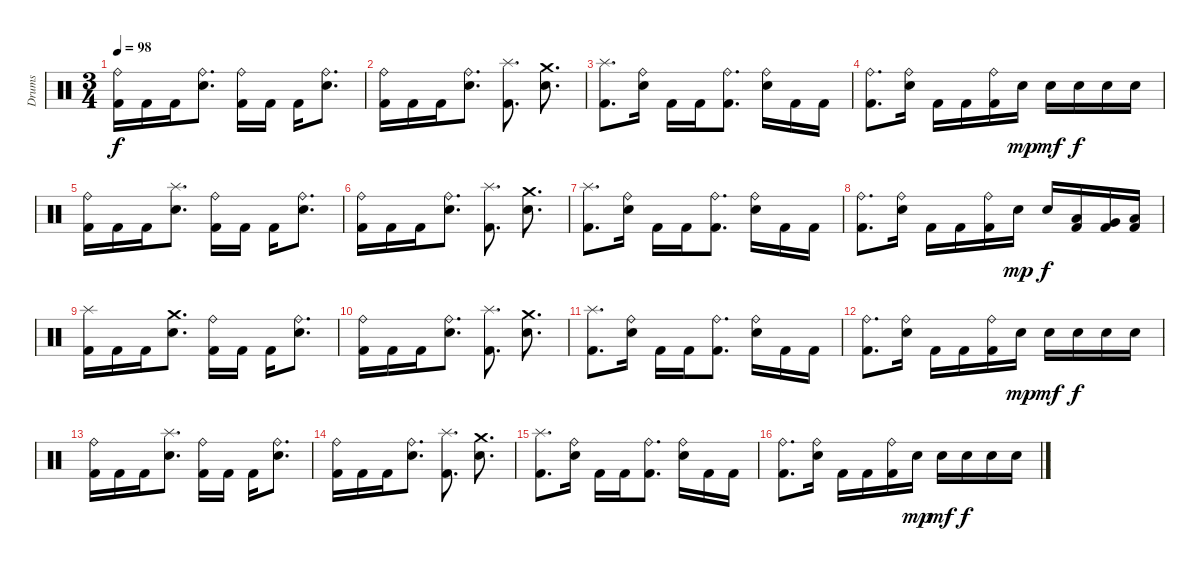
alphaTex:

\track ("Drums" "Drums") {instrument percussion}
\staff {score}
\articulation defaults
\ts (3 4)
\tempo 98
\clef neutral
\ks c
("Ride (bell)" "Kick (hit) 2").16{dy f} "Kick (hit) 2".16 "Kick (hit) 2".16 ("Ride (bell)" "Electric Snare (hit)").8{d} ("Ride (bell)" "Kick (hit) 2").16 "Kick (hit) 2".16 "Kick (hit) 2".16 ("Ride (bell)" "Electric Snare (hit)").8{d} |
("Ride (bell)" "Kick (hit) 2").16 "Kick (hit) 2".16 "Kick (hit) 2".16 ("Ride (bell)" "Electric Snare (hit)").8{d} ("Splash (hit)" "Kick (hit) 2").8{d} ("Crash medium (hit)" "Electric Snare (hit)").8{d} |
("Splash (hit)" "Kick (hit) 2").8{d} ("Ride (bell)" "Electric Snare (hit)").16 "Kick (hit) 2".16 "Kick (hit) 2".16 ("Ride (bell)" "Kick (hit) 2").8{d} ("Ride (bell)" "Electric Snare (hit)").16 "Kick (hit) 2".16 "Kick (hit) 2".16 |
("Ride (bell)" "Kick (hit) 2").8{d} ("Ride (bell)" "Electric Snare (hit)").16 "Kick (hit) 2".16 "Kick (hit) 2".16 ("Ride (bell)" "Kick (hit) 2").16 "Electric Snare (hit)".16{dy mp} "Electric Snare (hit)".16{dy mf} "Electric Snare (hit)".16{dy f} "Electric Snare (hit)".16 "Electric Snare (hit)".16 |
("Ride (bell)" "Kick (hit) 2").16 "Kick (hit) 2".16 "Kick (hit) 2".16 ("Splash (hit)" "Electric Snare (hit)").8{d} ("Ride (bell)" "Kick (hit) 2").16 "Kick (hit) 2".16 "Kick (hit) 2".16 ("Ride (bell)" "Electric Snare (hit)").8{d} |
("Ride (bell)" "Kick (hit) 2").16 "Kick (hit) 2".16 "Kick (hit) 2".16 ("Ride (bell)" "Electric Snare (hit)").8{d} ("Splash (hit)" "Kick (hit) 2").8{d} ("Crash medium (hit)" "Electric Snare (hit)").8{d} |
("Splash (hit)" "Kick (hit) 2").8{d} ("Ride (bell)" "Electric Snare (hit)").16 "Kick (hit) 2".16 "Kick (hit) 2".16 ("Ride (bell)" "Kick (hit) 2").8{d} ("Ride (bell)" "Electric Snare (hit)").16 "Kick (hit) 2".16 "Kick (hit) 2".16 |
("Ride (bell)" "Kick (hit) 2").8{d} ("Ride (bell)" "Electric Snare (hit)").16 "Kick (hit) 2".16 "Kick (hit) 2".16 ("Ride (bell)" "Kick (hit) 2").16 "Electric Snare (hit)".16{dy mp} "Electric Snare (hit)".16{dy f} ("Low Tom (hit)" "Kick (hit) 2").16 ("Very Low Tom (hit)" "Kick (hit) 2").16 ("Low Floor Tom (hit)" "Kick (hit) 2").16 |
("Splash (hit)" "Kick (hit) 2").16 "Kick (hit) 2".16 "Kick (hit) 2".16 ("Crash medium (hit)" "Electric Snare (hit)").8{d} ("Ride (bell)" "Kick (hit) 2").16 "Kick (hit) 2".16 "Kick (hit) 2".16 ("Ride (bell)" "Electric Snare (hit)").8{d} |
("Ride (bell)" "Kick (hit) 2").16 "Kick (hit) 2".16 "Kick (hit) 2".16 ("Ride (bell)" "Electric Snare (hit)").8{d} ("Splash (hit)" "Kick (hit) 2").8{d} ("Crash medium (hit)" "Electric Snare (hit)").8{d} |
("Splash (hit)" "Kick (hit) 2").8{d} ("Ride (bell)" "Electric Snare (hit)").16 "Kick (hit) 2".16 "Kick (hit) 2".16 ("Ride (bell)" "Kick (hit) 2").8{d} ("Ride (bell)" "Electric Snare (hit)").16 "Kick (hit) 2".16 "Kick (hit) 2".16 |
("Ride (bell)" "Kick (hit) 2").8{d} ("Ride (bell)" "Electric Snare (hit)").16 "Kick (hit) 2".16 "Kick (hit) 2".16 ("Ride (bell)" "Kick (hit) 2").16 "Electric Snare (hit)".16{dy mp} "Electric Snare (hit)".16{dy mf} "Electric Snare (hit)".16{dy f} "Electric Snare (hit)".16 "Electric Snare (hit)".16 |
("Ride (bell)" "Kick (hit) 2").16 "Kick (hit) 2".16 "Kick (hit) 2".16 ("Splash (hit)" "Electric Snare (hit)").8{d} ("Ride (bell)" "Kick (hit) 2").16 "Kick (hit) 2".16 "Kick (hit) 2".16 ("Ride (bell)" "Electric Snare (hit)").8{d} |
("Ride (bell)" "Kick (hit) 2").16 "Kick (hit) 2".16 "Kick (hit) 2".16 ("Ride (bell)" "Electric Snare (hit)").8{d} ("Splash (hit)" "Kick (hit) 2").8{d} ("Crash medium (hit)" "Electric Snare (hit)").8{d} |
("Splash (hit)" "Kick (hit) 2").8{d} ("Ride (bell)" "Electric Snare (hit)").16 "Kick (hit) 2".16 "Kick (hit) 2".16 ("Ride (bell)" "Kick (hit) 2").8{d} ("Ride (bell)" "Electric Snare (hit)").16 "Kick (hit) 2".16 "Kick (hit) 2".16 |
("Ride (bell)" "Kick (hit) 2").8{d} ("Ride (bell)" "Electric Snare (hit)").16 "Kick (hit) 2".16 "Kick (hit) 2".16 ("Ride (bell)" "Kick (hit) 2").16 "Electric Snare (hit)".16{dy mp} "Electric Snare (hit)".16{dy mf} "Electric Snare (hit)".16{dy f} "Electric Snare (hit)".16 "Electric Snare (hit)".16
